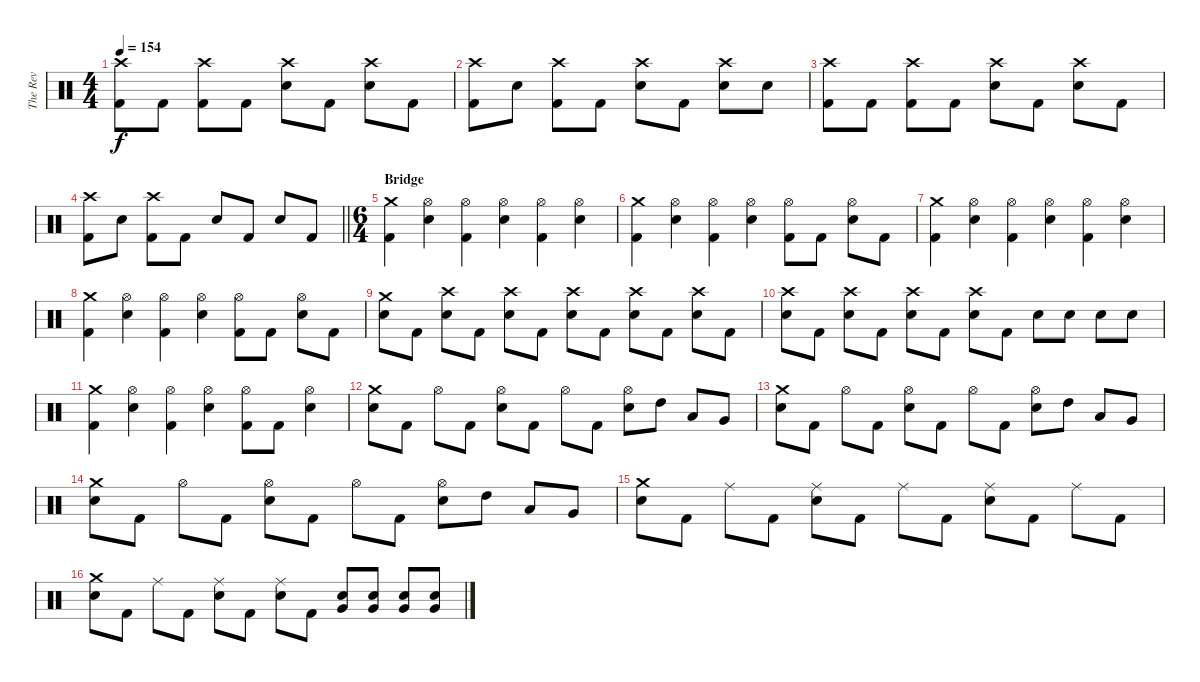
\track ("The Rev" "The Rev") {instrument percussion}
\staff {score}
\articulation defaults
\ts (4 4)
\tempo 154
\clef neutral
\ks c
("Crash high (hit)" "Kick (hit) 2").8{dy f} "Kick (hit) 2".8 ("Crash high (hit)" "Kick (hit) 2").8 "Kick (hit) 2".8 ("Crash high (hit)" "Snare (hit) 2").8 "Kick (hit) 2".8 ("Crash high (hit)" "Snare (hit) 2").8 "Kick (hit) 2".8 |
("Crash high (hit)" "Kick (hit) 2").8 "Snare (hit) 2".8 ("Crash high (hit)" "Kick (hit) 2").8 "Kick (hit) 2".8 ("Crash high (hit)" "Snare (hit) 2").8 "Kick (hit) 2".8 ("Crash high (hit)" "Snare (hit) 2").8 "Snare (hit) 2".8 |
("Crash high (hit)" "Kick (hit) 2").8 "Kick (hit) 2".8 ("Crash high (hit)" "Kick (hit) 2").8 "Kick (hit) 2".8 ("Crash high (hit)" "Snare (hit) 2").8 "Kick (hit) 2".8 ("Crash high (hit)" "Snare (hit) 2").8 "Kick (hit) 2".8 |
\barLineRight lightlight
("Crash high (hit)" "Kick (hit) 2").8 "Snare (hit) 2".8 ("Crash high (hit)" "Kick (hit) 2").8 "Kick (hit) 2".8 "Snare (hit) 2".8 "Kick (hit) 2".8 "Snare (hit) 2".8 "Kick (hit) 2".8 |
\ts (6 4)
\section ("" "Bridge")
("Crash medium (hit)" "Kick (hit) 2").4 ("Hi-Hat (open)" "Snare (hit) 2").4 ("Hi-Hat (open)" "Kick (hit) 2").4 ("Hi-Hat (open)" "Snare (hit) 2").4 ("Hi-Hat (open)" "Kick (hit) 2").4 ("Hi-Hat (open)" "Snare (hit) 2").4 |
("Crash medium (hit)" "Kick (hit) 2").4 ("Hi-Hat (open)" "Snare (hit) 2").4 ("Hi-Hat (open)" "Kick (hit) 2").4 ("Hi-Hat (open)" "Snare (hit) 2").4 ("Hi-Hat (open)" "Kick (hit) 2").8 "Kick (hit) 2".8 ("Hi-Hat (open)" "Snare (hit) 2").8 "Kick (hit) 2".8 |
("Crash medium (hit)" "Kick (hit) 2").4 ("Hi-Hat (open)" "Snare (hit) 2").4 ("Hi-Hat (open)" "Kick (hit) 2").4 ("Hi-Hat (open)" "Snare (hit) 2").4 ("Hi-Hat (open)" "Kick (hit) 2").4 ("Hi-Hat (open)" "Snare (hit) 2").4 |
("Crash medium (hit)" "Kick (hit) 2").4 ("Hi-Hat (open)" "Snare (hit) 2").4 ("Hi-Hat (open)" "Kick (hit) 2").4 ("Hi-Hat (open)" "Snare (hit) 2").4 ("Hi-Hat (open)" "Kick (hit) 2").8 "Kick (hit) 2".8 ("Hi-Hat (open)" "Snare (hit) 2").8 "Kick (hit) 2".8 |
("Crash medium (hit)" "Snare (hit) 2").8 "Kick (hit) 2".8 ("Crash high (hit)" "Snare (hit) 2").8 "Kick (hit) 2".8 ("Crash high (hit)" "Snare (hit) 2").8 "Kick (hit) 2".8 ("Crash high (hit)" "Snare (hit) 2").8 "Kick (hit) 2".8 ("Crash high (hit)" "Snare (hit) 2").8 "Kick (hit) 2".8 ("Crash high (hit)" "Snare (hit) 2").8 "Kick (hit) 2".8 |
("Crash high (hit)" "Snare (hit) 2").8 "Kick (hit) 2".8 ("Crash high (hit)" "Snare (hit) 2").8 "Kick (hit) 2".8 ("Crash high (hit)" "Snare (hit) 2").8 "Kick (hit) 2".8 ("Crash high (hit)" "Snare (hit) 2").8 "Kick (hit) 2".8 "Snare (hit) 2".8 "Snare (hit) 2".8 "Snare (hit) 2".8 "Snare (hit) 2".8 |
("Crash medium (hit)" "Kick (hit) 2").4 ("Hi-Hat (open)" "Snare (hit) 2").4 ("Hi-Hat (open)" "Kick (hit) 2").4 ("Hi-Hat (open)" "Snare (hit) 2").4 ("Hi-Hat (open)" "Kick (hit) 2").8 "Kick (hit) 2".8 ("Hi-Hat (open)" "Snare (hit) 2").4 |
("Crash medium (hit)" "Snare (hit) 2").8 "Kick (hit) 2".8 "Hi-Hat (open)".8 "Kick (hit) 2".8 ("Hi-Hat (open)" "Snare (hit) 2").8 "Kick (hit) 2".8 "Hi-Hat (open)".8 "Kick (hit) 2".8 ("Hi-Hat (open)" "Snare (hit) 2").8 "High Tom (hit)".8 "Low Tom (hit)".8 "Very Low Tom (hit)".8 |
("Crash medium (hit)" "Snare (hit) 2").8 "Kick (hit) 2".8 "Hi-Hat (open)".8 "Kick (hit) 2".8 ("Hi-Hat (open)" "Snare (hit) 2").8 "Kick (hit) 2".8 "Hi-Hat (open)".8 "Kick (hit) 2".8 ("Hi-Hat (open)" "Snare (hit) 2").8 "High Tom (hit)".8 "Low Tom (hit)".8 "Very Low Tom (hit)".8 |
("Crash medium (hit)" "Snare (hit) 2").8 "Kick (hit) 2".8 "Hi-Hat (open)".8 "Kick (hit) 2".8 ("Hi-Hat (open)" "Snare (hit) 2").8 "Kick (hit) 2".8 "Hi-Hat (open)".8 "Kick (hit) 2".8 ("Hi-Hat (open)" "Snare (hit) 2").8 "High Tom (hit)".8 "Low Tom (hit)".8 "Very Low Tom (hit)".8 |
("Crash medium (hit)" "Snare (hit) 2").8 "Kick (hit) 2".8 "Ride (middle)".8 "Kick (hit) 2".8 ("Ride (middle)" "Snare (hit) 2").8 "Kick (hit) 2".8 "Ride (middle)".8 "Kick (hit) 2".8 ("Ride (middle)" "Snare (hit) 2").8 "Kick (hit) 2".8 "Ride (middle)".8 "Kick (hit) 2".8 |
("Crash medium (hit)" "Snare (hit) 2").8 "Kick (hit) 2".8 "Ride (middle)".8 "Kick (hit) 2".8 ("Ride (middle)" "Snare (hit) 2").8 "Kick (hit) 2".8 ("Ride (middle)" "Snare (hit) 2").8 "Kick (hit) 2".8 ("Snare (hit) 2" "Very Low Tom (hit)").8 ("Snare (hit) 2" "Very Low Tom (hit)").8 ("Snare (hit) 2" "Very Low Tom (hit)").8 ("Snare (hit) 2" "Very Low Tom (hit)").8
